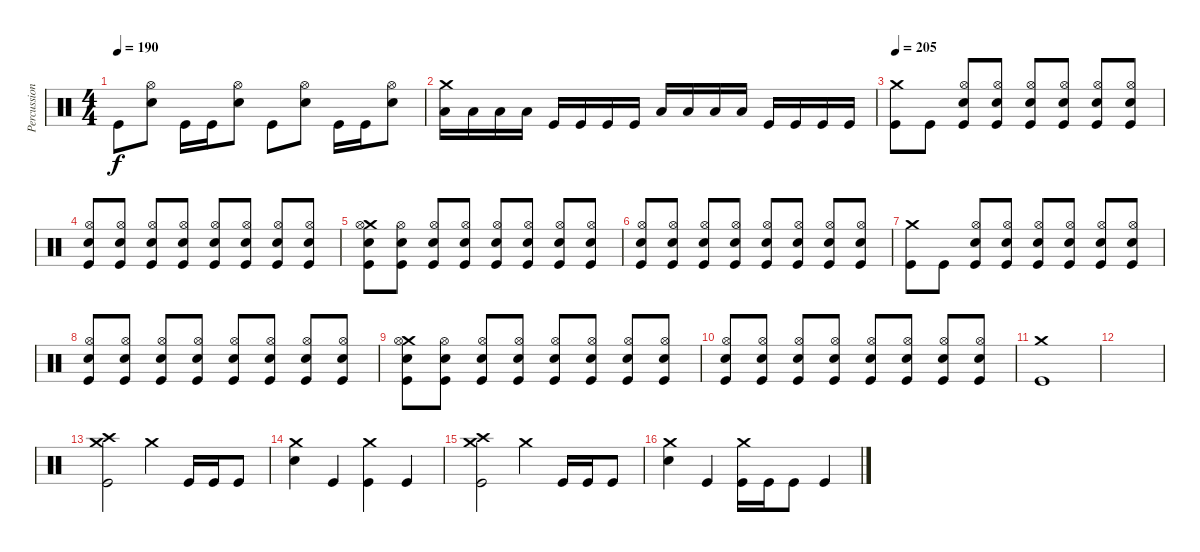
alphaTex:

\track ("Percussion" "Percussion") {instrument percussion}
\staff {score}
\articulation defaults
\ts (4 4)
\tempo 190
\clef neutral
\ks c "Kick (hit)".8{dy f}
("Hi-Hat (open)" "Electric Snare (hit)").8 "Kick (hit)".16 "Kick (hit)".16 ("Hi-Hat (open)" "Electric Snare (hit)").8 "Kick (hit)".8 ("Hi-Hat (open)" "Electric Snare (hit)").8 "Kick (hit)".16 "Kick (hit)".16 ("Hi-Hat (open)" "Electric Snare (hit)").8 |
("Crash medium (hit)" "Low Tom (hit)").16 "Low Tom (hit)".16 "Low Tom (hit)".16 "Low Tom (hit)".16 "Kick (hit)".16 "Kick (hit)".16 "Kick (hit)".16 "Kick (hit)".16 "Low Tom (hit)".16 "Low Tom (hit)".16 "Low Tom (hit)".16 "Low Tom (hit)".16 "Kick (hit)".16 "Kick (hit)".16 "Kick (hit)".16 "Kick (hit)".16 |
\tempo 205
("Crash medium (hit)" "Kick (hit)").8 "Kick (hit)".8 ("Hi-Hat (open)" "Electric Snare (hit)" "Kick (hit)").8 ("Hi-Hat (open)" "Electric Snare (hit)" "Kick (hit)").8 ("Hi-Hat (open)" "Electric Snare (hit)" "Kick (hit)").8 ("Hi-Hat (open)" "Electric Snare (hit)" "Kick (hit)").8 ("Hi-Hat (open)" "Electric Snare (hit)" "Kick (hit)").8 ("Hi-Hat (open)" "Electric Snare (hit)" "Kick (hit)").8 |
("Hi-Hat (open)" "Electric Snare (hit)" "Kick (hit)").8 ("Hi-Hat (open)" "Electric Snare (hit)" "Kick (hit)").8 ("Hi-Hat (open)" "Electric Snare (hit)" "Kick (hit)").8 ("Hi-Hat (open)" "Electric Snare (hit)" "Kick (hit)").8 ("Hi-Hat (open)" "Electric Snare (hit)" "Kick (hit)").8 ("Hi-Hat (open)" "Electric Snare (hit)" "Kick (hit)").8 ("Hi-Hat (open)" "Electric Snare (hit)" "Kick (hit)").8 ("Hi-Hat (open)" "Electric Snare (hit)" "Kick (hit)").8 |
("Crash medium (hit)" "Hi-Hat (open)" "Electric Snare (hit)" "Kick (hit)").8 ("Hi-Hat (open)" "Electric Snare (hit)" "Kick (hit)").8 ("Hi-Hat (open)" "Electric Snare (hit)" "Kick (hit)").8 ("Hi-Hat (open)" "Electric Snare (hit)" "Kick (hit)").8 ("Hi-Hat (open)" "Electric Snare (hit)" "Kick (hit)").8 ("Hi-Hat (open)" "Electric Snare (hit)" "Kick (hit)").8 ("Hi-Hat (open)" "Electric Snare (hit)" "Kick (hit)").8 ("Hi-Hat (open)" "Electric Snare (hit)" "Kick (hit)").8 |
("Hi-Hat (open)" "Electric Snare (hit)" "Kick (hit)").8 ("Hi-Hat (open)" "Electric Snare (hit)" "Kick (hit)").8 ("Hi-Hat (open)" "Electric Snare (hit)" "Kick (hit)").8 ("Hi-Hat (open)" "Electric Snare (hit)" "Kick (hit)").8 ("Hi-Hat (open)" "Electric Snare (hit)" "Kick (hit)").8 ("Hi-Hat (open)" "Electric Snare (hit)" "Kick (hit)").8 ("Hi-Hat (open)" "Electric Snare (hit)" "Kick (hit)").8 ("Hi-Hat (open)" "Electric Snare (hit)" "Kick (hit)").8 |
("Crash medium (hit)" "Kick (hit)").8 "Kick (hit)".8 ("Hi-Hat (open)" "Electric Snare (hit)" "Kick (hit)").8 ("Hi-Hat (open)" "Electric Snare (hit)" "Kick (hit)").8 ("Hi-Hat (open)" "Electric Snare (hit)" "Kick (hit)").8 ("Hi-Hat (open)" "Electric Snare (hit)" "Kick (hit)").8 ("Hi-Hat (open)" "Electric Snare (hit)" "Kick (hit)").8 ("Hi-Hat (open)" "Electric Snare (hit)" "Kick (hit)").8 |
("Hi-Hat (open)" "Electric Snare (hit)" "Kick (hit)").8 ("Hi-Hat (open)" "Electric Snare (hit)" "Kick (hit)").8 ("Hi-Hat (open)" "Electric Snare (hit)" "Kick (hit)").8 ("Hi-Hat (open)" "Electric Snare (hit)" "Kick (hit)").8 ("Hi-Hat (open)" "Electric Snare (hit)" "Kick (hit)").8 ("Hi-Hat (open)" "Electric Snare (hit)" "Kick (hit)").8 ("Hi-Hat (open)" "Electric Snare (hit)" "Kick (hit)").8 ("Hi-Hat (open)" "Electric Snare (hit)" "Kick (hit)").8 |
("Crash medium (hit)" "Hi-Hat (open)" "Electric Snare (hit)" "Kick (hit)").8 ("Hi-Hat (open)" "Electric Snare (hit)" "Kick (hit)").8 ("Hi-Hat (open)" "Electric Snare (hit)" "Kick (hit)").8 ("Hi-Hat (open)" "Electric Snare (hit)" "Kick (hit)").8 ("Hi-Hat (open)" "Electric Snare (hit)" "Kick (hit)").8 ("Hi-Hat (open)" "Electric Snare (hit)" "Kick (hit)").8 ("Hi-Hat (open)" "Electric Snare (hit)" "Kick (hit)").8 ("Hi-Hat (open)" "Electric Snare (hit)" "Kick (hit)").8 |
("Hi-Hat (open)" "Electric Snare (hit)" "Kick (hit)").8 ("Hi-Hat (open)" "Electric Snare (hit)" "Kick (hit)").8 ("Hi-Hat (open)" "Electric Snare (hit)" "Kick (hit)").8 ("Hi-Hat (open)" "Electric Snare (hit)" "Kick (hit)").8 ("Hi-Hat (open)" "Electric Snare (hit)" "Kick (hit)").8 ("Hi-Hat (open)" "Electric Snare (hit)" "Kick (hit)").8 ("Hi-Hat (open)" "Electric Snare (hit)" "Kick (hit)").8 ("Hi-Hat (open)" "Electric Snare (hit)" "Kick (hit)").8 |
("Crash medium (hit)" "Kick (hit)").1 |
|
("Crash medium (hit)" "Crash high (hit)" "Kick (hit)").2 "Crash medium (hit)".4 "Kick (hit)".16 "Kick (hit)".16 "Kick (hit)".8 |
("Crash medium (hit)" "Electric Snare (hit)").4 "Kick (hit)".4 ("Crash medium (hit)" "Kick (hit)").4 "Kick (hit)".4 |
("Crash medium (hit)" "Crash high (hit)" "Kick (hit)").2 "Crash medium (hit)".4 "Kick (hit)".16 "Kick (hit)".16 "Kick (hit)".8 |
("Crash medium (hit)" "Electric Snare (hit)").4 "Kick (hit)".4 ("Crash medium (hit)" "Kick (hit)").16 "Kick (hit)".16 "Kick (hit)".8 "Kick (hit)".4
